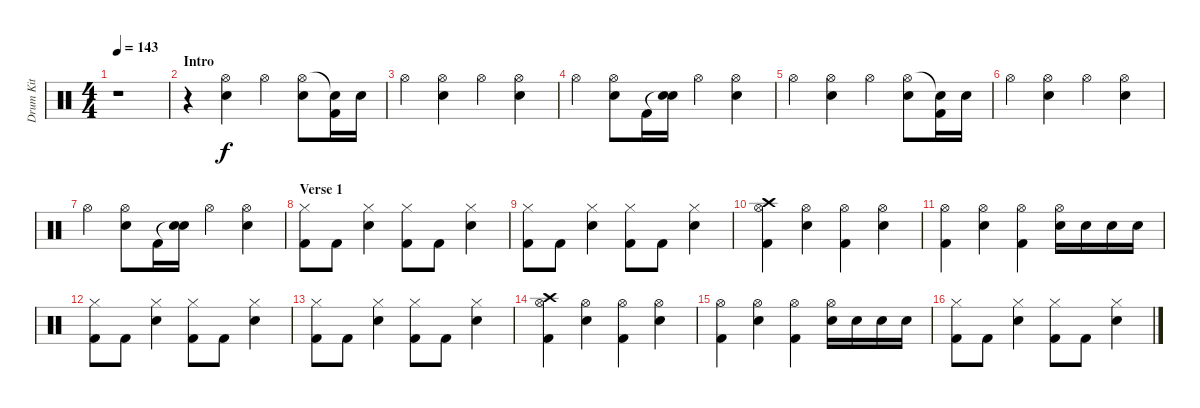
\track ("Drum Kit" "Drum Kit") {instrument percussion}
\staff {score}
\articulation defaults
\ts (4 4)
\tempo 143
\clef neutral
\ks c
r.1{dy f} |
\section ("" "Intro")
r.4 ("Hi-Hat (open)" "Snare (hit) 2").4 "Hi-Hat (open)".4 ("Hi-Hat (open)" "Snare (hit) 2").8 ("Snare (hit)"{t} "Kick (hit) 2").16 "Snare (hit) 2".16 |
"Hi-Hat (open)".4 ("Hi-Hat (open)" "Snare (hit) 2").4 "Hi-Hat (open)".4 ("Hi-Hat (open)" "Snare (hit) 2").4 |
"Hi-Hat (open)".4 ("Hi-Hat (open)" "Snare (hit) 2").8 "Kick (hit) 2".16 ("Snare (hit)"{t} "Snare (hit) 2").16 "Hi-Hat (open)".4 ("Hi-Hat (open)" "Snare (hit) 2").4 |
"Hi-Hat (open)".4 ("Hi-Hat (open)" "Snare (hit) 2").4 "Hi-Hat (open)".4 ("Hi-Hat (open)" "Snare (hit) 2").8 ("Snare (hit)"{t} "Kick (hit) 2").16 "Snare (hit) 2".16 |
"Hi-Hat (open)".4 ("Hi-Hat (open)" "Snare (hit) 2").4 "Hi-Hat (open)".4 ("Hi-Hat (open)" "Snare (hit) 2").4 |
"Hi-Hat (open)".4 ("Hi-Hat (open)" "Snare (hit) 2").8 "Kick (hit) 2".16 ("Snare (hit)"{t} "Snare (hit) 2").16 "Hi-Hat (open)".4 ("Hi-Hat (open)" "Snare (hit) 2").4 |
\section ("" "Verse 1")
("Hi-Hat (closed)" "Kick (hit) 2").8 "Kick (hit) 2".8 ("Hi-Hat (closed)" "Snare (hit) 2").4 ("Hi-Hat (closed)" "Kick (hit) 2").8 "Kick (hit) 2".8 ("Hi-Hat (closed)" "Snare (hit) 2").4 |
("Hi-Hat (closed)" "Kick (hit) 2").8 "Kick (hit) 2".8 ("Hi-Hat (closed)" "Snare (hit) 2").4 ("Hi-Hat (closed)" "Kick (hit) 2").8 "Kick (hit) 2".8 ("Hi-Hat (closed)" "Snare (hit) 2").4 |
("Hi-Hat (open)" "Crash high (hit)" "Kick (hit) 2").4 ("Hi-Hat (open)" "Snare (hit) 2").4 ("Hi-Hat (open)" "Kick (hit) 2").4 ("Hi-Hat (open)" "Snare (hit) 2").4 |
("Hi-Hat (open)" "Kick (hit) 2").4 ("Hi-Hat (open)" "Snare (hit) 2").4 ("Hi-Hat (open)" "Kick (hit) 2").4 ("Hi-Hat (open)" "Snare (hit) 2").16 "Snare (hit) 2".16 "Snare (hit) 2".16 "Snare (hit) 2".16 |
("Hi-Hat (closed)" "Kick (hit) 2").8 "Kick (hit) 2".8 ("Hi-Hat (closed)" "Snare (hit) 2").4 ("Hi-Hat (closed)" "Kick (hit) 2").8 "Kick (hit) 2".8 ("Hi-Hat (closed)" "Snare (hit) 2").4 |
("Hi-Hat (closed)" "Kick (hit) 2").8 "Kick (hit) 2".8 ("Hi-Hat (closed)" "Snare (hit) 2").4 ("Hi-Hat (closed)" "Kick (hit) 2").8 "Kick (hit) 2".8 ("Hi-Hat (closed)" "Snare (hit) 2").4 |
("Hi-Hat (open)" "Crash high (hit)" "Kick (hit) 2").4 ("Hi-Hat (open)" "Snare (hit) 2").4 ("Hi-Hat (open)" "Kick (hit) 2").4 ("Hi-Hat (open)" "Snare (hit) 2").4 |
("Hi-Hat (open)" "Kick (hit) 2").4 ("Hi-Hat (open)" "Snare (hit) 2").4 ("Hi-Hat (open)" "Kick (hit) 2").4 ("Hi-Hat (open)" "Snare (hit) 2").16 "Snare (hit) 2".16 "Snare (hit) 2".16 "Snare (hit) 2".16 |
("Hi-Hat (closed)" "Kick (hit) 2").8 "Kick (hit) 2".8 ("Hi-Hat (closed)" "Snare (hit) 2").4 ("Hi-Hat (closed)" "Kick (hit) 2").8 "Kick (hit) 2".8 ("Hi-Hat (closed)" "Snare (hit) 2").4
